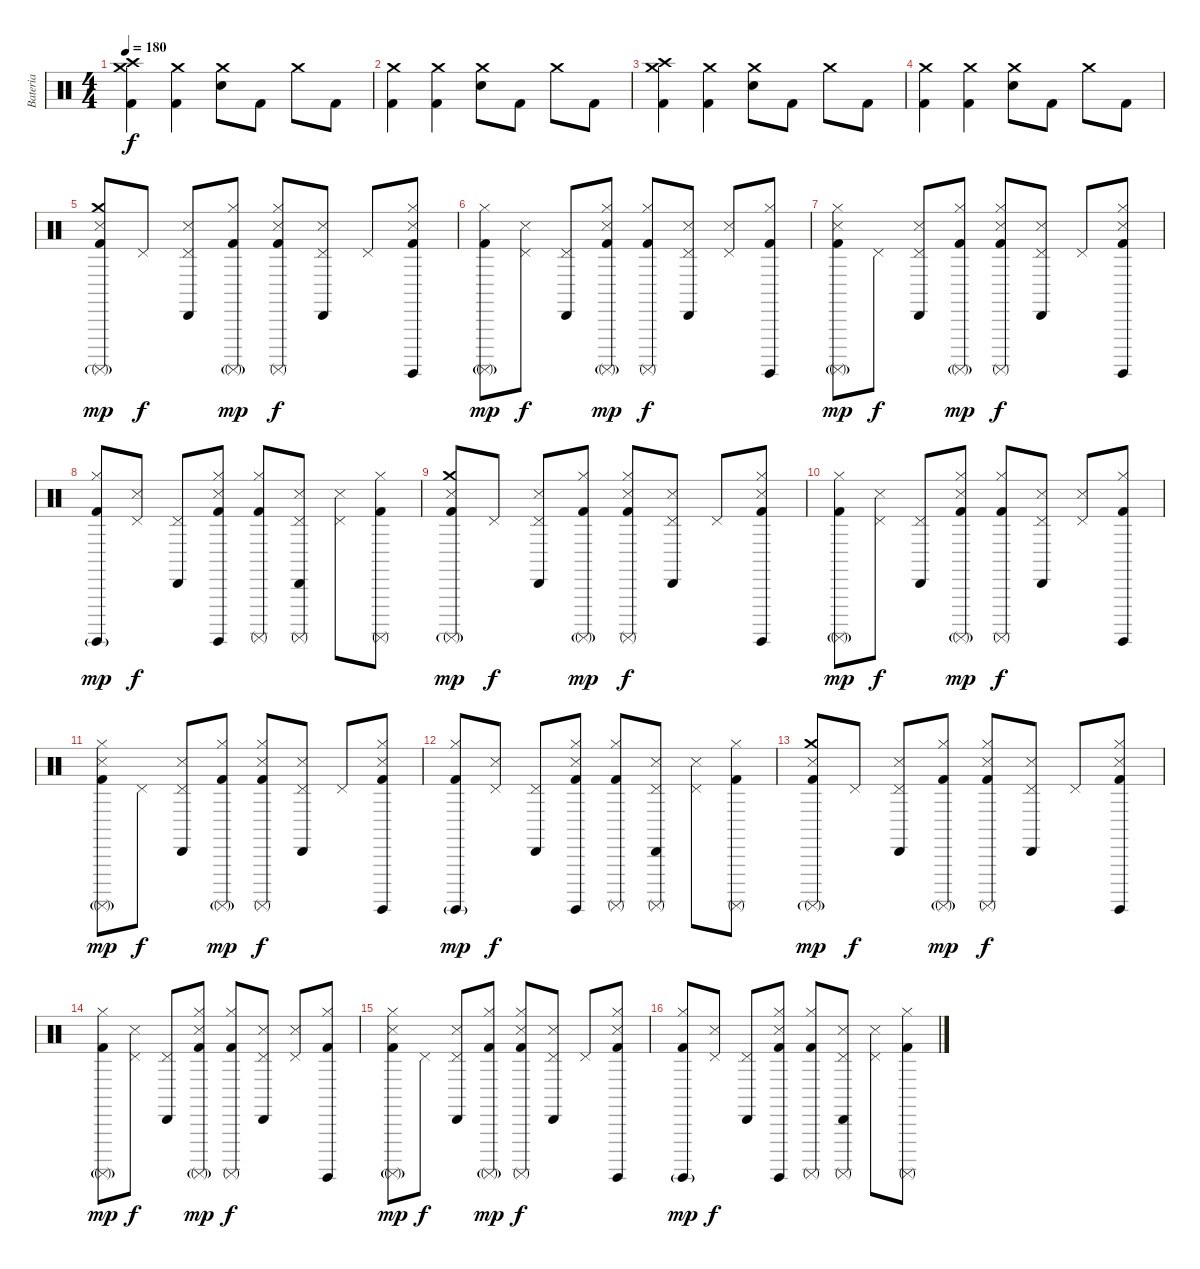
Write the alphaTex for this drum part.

\track ("Bateria" "Bateria") {instrument percussion}
\staff {score}
\articulation defaults
\ts (4 4)
\tempo 180
\clef neutral
\ks c
("Crash medium (hit)" "Crash high (hit)" "Kick (hit) 2").4{dy f} ("Crash medium (hit)" "Kick (hit) 2").4 ("Crash medium (hit)" "Electric Snare (hit)").8 "Kick (hit) 2".8 "Crash medium (hit)".8 "Kick (hit) 2".8 |
("Crash medium (hit)" "Kick (hit) 2").4 ("Crash medium (hit)" "Kick (hit) 2").4 ("Crash medium (hit)" "Electric Snare (hit)").8 "Kick (hit) 2".8 "Crash medium (hit)".8 "Kick (hit) 2".8 |
("Crash medium (hit)" "Crash high (hit)" "Kick (hit) 2").4 ("Crash medium (hit)" "Kick (hit) 2").4 ("Crash medium (hit)" "Electric Snare (hit)").8 "Kick (hit) 2".8 "Crash medium (hit)".8 "Kick (hit) 2".8 |
("Crash medium (hit)" "Kick (hit) 2").4 ("Crash medium (hit)" "Kick (hit) 2").4 ("Crash medium (hit)" "Electric Snare (hit)").8 "Kick (hit) 2".8 "Crash medium (hit)".8 "Kick (hit) 2".8 |
("Crash medium (hit)" "Snare (side stick) 3" "Surdo (mute)"{g} "Kick (hit) 2").8{dy mp} "Pedal Hi-Hat (hit)".8{dy f} ("Pedal Hi-Hat (hit)" "Cabasa (hit)" "Snare (side stick) 3").8 ("Hi-Hat (closed)" "Surdo (mute)"{g} "Kick (hit) 2").8{dy mp} ("Hi-Hat (closed)" "Snare (side stick) 3" "Surdo (mute)" "Kick (hit) 2").8{dy f} ("Pedal Hi-Hat (hit)" "Cabasa (hit)" "Snare (side stick) 3").8 "Pedal Hi-Hat (hit)".8 ("Hi-Hat (closed)" "Snare (side stick) 3" "Surdo (hit)" "Kick (hit) 2").8 |
("Hi-Hat (closed)" "Surdo (mute)"{g} "Kick (hit) 2").8{dy mp} ("Pedal Hi-Hat (hit)" "Snare (side stick) 3").8{dy f} ("Pedal Hi-Hat (hit)" "Cabasa (hit)").8 ("Hi-Hat (closed)" "Snare (side stick) 3" "Surdo (mute)"{g} "Kick (hit) 2").8{dy mp} ("Hi-Hat (closed)" "Surdo (mute)" "Kick (hit) 2").8{dy f} ("Pedal Hi-Hat (hit)" "Cabasa (hit)" "Snare (side stick) 3").8 ("Pedal Hi-Hat (hit)" "Snare (side stick) 3").8 ("Hi-Hat (closed)" "Surdo (hit)" "Kick (hit) 2").8 |
("Hi-Hat (closed)" "Snare (side stick) 3" "Surdo (mute)"{g} "Kick (hit) 2").8{dy mp} "Pedal Hi-Hat (hit)".8{dy f} ("Pedal Hi-Hat (hit)" "Cabasa (hit)" "Snare (side stick) 3").8 ("Hi-Hat (closed)" "Surdo (mute)"{g} "Kick (hit) 2").8{dy mp} ("Hi-Hat (closed)" "Snare (side stick) 3" "Surdo (mute)" "Kick (hit) 2").8{dy f} ("Pedal Hi-Hat (hit)" "Cabasa (hit)" "Snare (side stick) 3").8 "Pedal Hi-Hat (hit)".8 ("Hi-Hat (closed)" "Snare (side stick) 3" "Surdo (hit)" "Kick (hit) 2").8 |
("Hi-Hat (closed)" "Surdo (hit)"{g} "Kick (hit) 2").8{dy mp} ("Pedal Hi-Hat (hit)" "Snare (side stick) 3").8{dy f} ("Pedal Hi-Hat (hit)" "Cabasa (hit)").8 ("Hi-Hat (closed)" "Snare (side stick) 3" "Surdo (hit)" "Kick (hit) 2").8 ("Hi-Hat (closed)" "Surdo (mute)" "Kick (hit) 2").8 ("Pedal Hi-Hat (hit)" "Cabasa (hit)" "Snare (side stick) 3" "Surdo (mute)").8 ("Pedal Hi-Hat (hit)" "Snare (side stick) 3").8 ("Hi-Hat (closed)" "Surdo (mute)" "Kick (hit) 2").8 |
("Crash medium (hit)" "Snare (side stick) 3" "Surdo (mute)"{g} "Kick (hit) 2").8{dy mp} "Pedal Hi-Hat (hit)".8{dy f} ("Pedal Hi-Hat (hit)" "Cabasa (hit)" "Snare (side stick) 3").8 ("Hi-Hat (closed)" "Surdo (mute)"{g} "Kick (hit) 2").8{dy mp} ("Hi-Hat (closed)" "Snare (side stick) 3" "Surdo (mute)" "Kick (hit) 2").8{dy f} ("Pedal Hi-Hat (hit)" "Cabasa (hit)" "Snare (side stick) 3").8 "Pedal Hi-Hat (hit)".8 ("Hi-Hat (closed)" "Snare (side stick) 3" "Surdo (hit)" "Kick (hit) 2").8 |
("Hi-Hat (closed)" "Surdo (mute)"{g} "Kick (hit) 2").8{dy mp} ("Pedal Hi-Hat (hit)" "Snare (side stick) 3").8{dy f} ("Pedal Hi-Hat (hit)" "Cabasa (hit)").8 ("Hi-Hat (closed)" "Snare (side stick) 3" "Surdo (mute)"{g} "Kick (hit) 2").8{dy mp} ("Hi-Hat (closed)" "Surdo (mute)" "Kick (hit) 2").8{dy f} ("Pedal Hi-Hat (hit)" "Cabasa (hit)" "Snare (side stick) 3").8 ("Pedal Hi-Hat (hit)" "Snare (side stick) 3").8 ("Hi-Hat (closed)" "Surdo (hit)" "Kick (hit) 2").8 |
("Hi-Hat (closed)" "Snare (side stick) 3" "Surdo (mute)"{g} "Kick (hit) 2").8{dy mp} "Pedal Hi-Hat (hit)".8{dy f} ("Pedal Hi-Hat (hit)" "Cabasa (hit)" "Snare (side stick) 3").8 ("Hi-Hat (closed)" "Surdo (mute)"{g} "Kick (hit) 2").8{dy mp} ("Hi-Hat (closed)" "Snare (side stick) 3" "Surdo (mute)" "Kick (hit) 2").8{dy f} ("Pedal Hi-Hat (hit)" "Cabasa (hit)" "Snare (side stick) 3").8 "Pedal Hi-Hat (hit)".8 ("Hi-Hat (closed)" "Snare (side stick) 3" "Surdo (hit)" "Kick (hit) 2").8 |
("Hi-Hat (closed)" "Surdo (hit)"{g} "Kick (hit) 2").8{dy mp} ("Pedal Hi-Hat (hit)" "Snare (side stick) 3").8{dy f} ("Pedal Hi-Hat (hit)" "Cabasa (hit)").8 ("Hi-Hat (closed)" "Snare (side stick) 3" "Surdo (hit)" "Kick (hit) 2").8 ("Hi-Hat (closed)" "Surdo (mute)" "Kick (hit) 2").8 ("Pedal Hi-Hat (hit)" "Cabasa (hit)" "Snare (side stick) 3" "Surdo (mute)").8 ("Pedal Hi-Hat (hit)" "Snare (side stick) 3").8 ("Hi-Hat (closed)" "Surdo (mute)" "Kick (hit) 2").8 |
("Crash medium (hit)" "Snare (side stick) 3" "Surdo (mute)"{g} "Kick (hit) 2").8{dy mp volume 10} "Pedal Hi-Hat (hit)".8{dy f} ("Pedal Hi-Hat (hit)" "Cabasa (hit)" "Snare (side stick) 3").8 ("Hi-Hat (closed)" "Surdo (mute)"{g} "Kick (hit) 2").8{dy mp} ("Hi-Hat (closed)" "Snare (side stick) 3" "Surdo (mute)" "Kick (hit) 2").8{dy f} ("Pedal Hi-Hat (hit)" "Cabasa (hit)" "Snare (side stick) 3").8 "Pedal Hi-Hat (hit)".8 ("Hi-Hat (closed)" "Snare (side stick) 3" "Surdo (hit)" "Kick (hit) 2").8 |
("Hi-Hat (closed)" "Surdo (mute)"{g} "Kick (hit) 2").8{dy mp volume 8} ("Pedal Hi-Hat (hit)" "Snare (side stick) 3").8{dy f} ("Pedal Hi-Hat (hit)" "Cabasa (hit)").8 ("Hi-Hat (closed)" "Snare (side stick) 3" "Surdo (mute)"{g} "Kick (hit) 2").8{dy mp} ("Hi-Hat (closed)" "Surdo (mute)" "Kick (hit) 2").8{dy f} ("Pedal Hi-Hat (hit)" "Cabasa (hit)" "Snare (side stick) 3").8 ("Pedal Hi-Hat (hit)" "Snare (side stick) 3").8 ("Hi-Hat (closed)" "Surdo (hit)" "Kick (hit) 2").8 |
("Hi-Hat (closed)" "Snare (side stick) 3" "Surdo (mute)"{g} "Kick (hit) 2").8{dy mp volume 6} "Pedal Hi-Hat (hit)".8{dy f} ("Pedal Hi-Hat (hit)" "Cabasa (hit)" "Snare (side stick) 3").8 ("Hi-Hat (closed)" "Surdo (mute)"{g} "Kick (hit) 2").8{dy mp} ("Hi-Hat (closed)" "Snare (side stick) 3" "Surdo (mute)" "Kick (hit) 2").8{dy f} ("Pedal Hi-Hat (hit)" "Cabasa (hit)" "Snare (side stick) 3").8 "Pedal Hi-Hat (hit)".8 ("Hi-Hat (closed)" "Snare (side stick) 3" "Surdo (hit)" "Kick (hit) 2").8 |
("Hi-Hat (closed)" "Surdo (hit)"{g} "Kick (hit) 2").8{dy mp} ("Pedal Hi-Hat (hit)" "Snare (side stick) 3").8{dy f volume 5} ("Pedal Hi-Hat (hit)" "Cabasa (hit)").8 ("Hi-Hat (closed)" "Snare (side stick) 3" "Surdo (hit)" "Kick (hit) 2").8 ("Hi-Hat (closed)" "Surdo (mute)" "Kick (hit) 2").8 ("Pedal Hi-Hat (hit)" "Cabasa (hit)" "Snare (side stick) 3" "Surdo (mute)").8 ("Pedal Hi-Hat (hit)" "Snare (side stick) 3").8 ("Hi-Hat (closed)" "Surdo (mute)" "Kick (hit) 2").8
